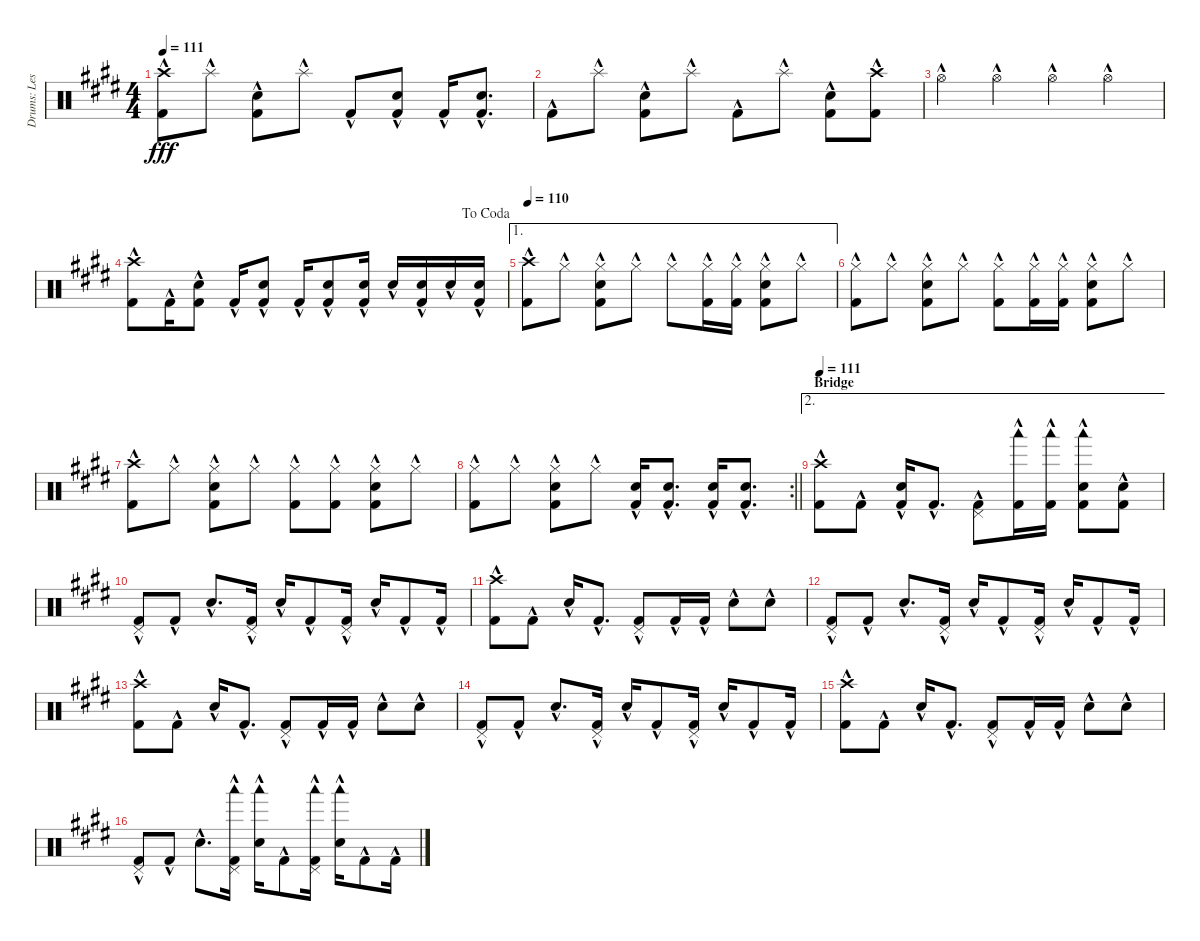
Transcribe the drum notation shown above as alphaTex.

\track ("Drums: Les" "Drums: Les") {instrument percussion}
\staff {score}
\articulation defaults
\ts (4 4)
\tempo 111
\clef neutral
\ks e
("Crash high (hit)"{hac} "Kick (hit) 2"{hac}).8{dy fff} "Splash (hit)"{hac}.8 ("Snare (hit) 2"{hac} "Kick (hit) 2"{hac}).8 "Splash (hit)"{hac}.8 "Kick (hit) 2"{hac}.8 ("Snare (hit) 2"{hac} "Kick (hit) 2"{hac}).8 "Kick (hit) 2"{hac}.16 ("Snare (hit) 2"{hac} "Kick (hit) 2"{hac}).8{d} |
"Kick (hit) 2"{hac}.8 "Splash (hit)"{hac}.8 ("Snare (hit) 2"{hac} "Kick (hit) 2"{hac}).8 "Splash (hit)"{hac}.8 "Kick (hit) 2"{hac}.8 "Splash (hit)"{hac}.8 ("Snare (hit) 2"{hac} "Kick (hit) 2"{hac}).8 ("Crash high (hit)"{hac} "Kick (hit) 2"{hac}).8 |
"Hi-Hat (open)"{hac}.4 "Hi-Hat (open)"{hac}.4 "Hi-Hat (open)"{hac}.4 "Hi-Hat (open)"{hac}.4 |
\jump dacoda
("Crash high (hit)"{hac} "Kick (hit) 2"{hac}).8 "Kick (hit) 2"{hac}.16 ("Snare (hit) 2"{hac} "Kick (hit) 2"{hac}).8 "Kick (hit) 2"{hac}.16 ("Snare (hit) 2"{hac} "Kick (hit) 2"{hac}).8 "Kick (hit) 2"{hac}.16 ("Snare (hit) 2"{hac} "Kick (hit) 2"{hac}).8 ("Snare (hit) 2"{hac} "Kick (hit) 2"{hac}).16 "Snare (hit) 2"{hac}.16 ("Snare (hit) 2"{hac} "Kick (hit) 2"{hac}).16 "Snare (hit) 2"{hac}.16 ("Snare (hit) 2"{hac} "Kick (hit) 2"{hac}).16 |
\ae 1
\tempo 110
("Crash high (hit)"{hac} "Kick (hit) 2"{hac}).8 "Hi-Hat (closed)"{hac}.8 ("Hi-Hat (closed)"{hac} "Snare (hit) 2"{hac} "Kick (hit) 2"{hac}).8 "Hi-Hat (closed)"{hac}.8 "Hi-Hat (closed)"{hac}.8 ("Hi-Hat (closed)"{hac} "Kick (hit) 2"{hac}).16 ("Hi-Hat (closed)"{hac} "Kick (hit) 2"{hac}).16 ("Hi-Hat (closed)"{hac} "Snare (hit) 2"{hac} "Kick (hit) 2"{hac}).8 "Hi-Hat (closed)"{hac}.8 |
("Hi-Hat (closed)"{hac} "Kick (hit) 2"{hac}).8 "Hi-Hat (closed)"{hac}.8 ("Hi-Hat (closed)"{hac} "Snare (hit) 2"{hac} "Kick (hit) 2"{hac}).8 "Hi-Hat (closed)"{hac}.8 ("Hi-Hat (closed)"{hac} "Kick (hit) 2"{hac}).8 ("Hi-Hat (closed)"{hac} "Kick (hit) 2"{hac}).16 ("Hi-Hat (closed)"{hac} "Kick (hit) 2"{hac}).16 ("Hi-Hat (closed)"{hac} "Snare (hit) 2"{hac} "Kick (hit) 2"{hac}).8 "Hi-Hat (closed)"{hac}.8 |
("Crash high (hit)"{hac} "Kick (hit) 2"{hac}).8 "Hi-Hat (closed)"{hac}.8 ("Hi-Hat (closed)"{hac} "Snare (hit) 2"{hac} "Kick (hit) 2"{hac}).8 "Hi-Hat (closed)"{hac}.8 ("Hi-Hat (closed)"{hac} "Kick (hit) 2"{hac}).8 ("Hi-Hat (closed)"{hac} "Kick (hit) 2"{hac}).8 ("Hi-Hat (closed)"{hac} "Snare (hit) 2"{hac} "Kick (hit) 2"{hac}).8 "Hi-Hat (closed)"{hac}.8 |
\rc 2
\barLineRight lightlight
("Hi-Hat (closed)"{hac} "Kick (hit) 2"{hac}).8 "Hi-Hat (closed)"{hac}.8 ("Hi-Hat (closed)"{hac} "Snare (hit) 2"{hac} "Kick (hit) 2"{hac}).8 "Hi-Hat (closed)"{hac}.8 ("Snare (hit) 2"{hac} "Kick (hit) 2"{hac}).16 ("Snare (hit) 2"{hac} "Kick (hit) 2"{hac}).8{d} ("Snare (hit) 2"{hac} "Kick (hit) 2"{hac}).16 ("Snare (hit) 2"{hac} "Kick (hit) 2"{hac}).8{d} |
\ae 2
\section ("" "Bridge")
\tempo 111
("Crash high (hit)"{hac} "Kick (hit) 2"{hac}).8 "Kick (hit) 2"{hac}.8 ("Snare (hit) 2"{hac} "Kick (hit) 2"{hac}).16 "Kick (hit) 2"{hac}.8{d} ("Pedal Hi-Hat (hit)"{hac} "Kick (hit) 2"{hac}).8 ("Kick (hit) 2"{hac} "Woodblock low (hit)"{hac}).16 ("Kick (hit) 2"{hac} "Woodblock low (hit)"{hac}).16 ("Snare (hit) 2"{hac} "Kick (hit) 2"{hac} "Woodblock low (hit)"{hac}).8 ("Snare (hit) 2"{hac} "Kick (hit) 2"{hac}).8 |
("Pedal Hi-Hat (hit)"{hac} "Kick (hit) 2"{hac}).8 "Kick (hit) 2"{hac}.8 "Electric Snare (hit)"{hac}.8{d} ("Pedal Hi-Hat (hit)"{hac} "Kick (hit) 2"{hac}).16 "Electric Snare (hit)"{hac}.16 "Kick (hit) 2"{hac}.8 ("Pedal Hi-Hat (hit)"{hac} "Kick (hit) 2"{hac}).16 "Electric Snare (hit)"{hac}.16 "Kick (hit) 2"{hac}.8 "Kick (hit) 2"{hac}.16 |
("Crash high (hit)"{hac} "Kick (hit) 2"{hac}).8 "Kick (hit) 2"{hac}.8 "Electric Snare (hit)"{hac}.16 "Kick (hit) 2"{hac}.8{d} ("Pedal Hi-Hat (hit)"{hac} "Kick (hit) 2"{hac}).8 "Kick (hit) 2"{hac}.16 "Kick (hit) 2"{hac}.16 "Electric Snare (hit)"{hac}.8 "Electric Snare (hit)"{hac}.8 |
("Pedal Hi-Hat (hit)"{hac} "Kick (hit) 2"{hac}).8 "Kick (hit) 2"{hac}.8 "Electric Snare (hit)"{hac}.8{d} ("Pedal Hi-Hat (hit)"{hac} "Kick (hit) 2"{hac}).16 "Electric Snare (hit)"{hac}.16 "Kick (hit) 2"{hac}.8 ("Pedal Hi-Hat (hit)"{hac} "Kick (hit) 2"{hac}).16 "Electric Snare (hit)"{hac}.16 "Kick (hit) 2"{hac}.8 "Kick (hit) 2"{hac}.16 |
("Crash high (hit)"{hac} "Kick (hit) 2"{hac}).8 "Kick (hit) 2"{hac}.8 "Electric Snare (hit)"{hac}.16 "Kick (hit) 2"{hac}.8{d} ("Pedal Hi-Hat (hit)"{hac} "Kick (hit) 2"{hac}).8 "Kick (hit) 2"{hac}.16 "Kick (hit) 2"{hac}.16 "Electric Snare (hit)"{hac}.8 "Electric Snare (hit)"{hac}.8 |
("Pedal Hi-Hat (hit)"{hac} "Kick (hit) 2"{hac}).8 "Kick (hit) 2"{hac}.8 "Electric Snare (hit)"{hac}.8{d} ("Pedal Hi-Hat (hit)"{hac} "Kick (hit) 2"{hac}).16 "Electric Snare (hit)"{hac}.16 "Kick (hit) 2"{hac}.8 ("Pedal Hi-Hat (hit)"{hac} "Kick (hit) 2"{hac}).16 "Electric Snare (hit)"{hac}.16 "Kick (hit) 2"{hac}.8 "Kick (hit) 2"{hac}.16 |
("Crash high (hit)"{hac} "Kick (hit) 2"{hac}).8 "Kick (hit) 2"{hac}.8 "Electric Snare (hit)"{hac}.16 "Kick (hit) 2"{hac}.8{d} ("Pedal Hi-Hat (hit)"{hac} "Kick (hit) 2"{hac}).8 "Kick (hit) 2"{hac}.16 "Kick (hit) 2"{hac}.16 "Electric Snare (hit)"{hac}.8 "Electric Snare (hit)"{hac}.8 |
("Pedal Hi-Hat (hit)"{hac} "Kick (hit) 2"{hac}).8 "Kick (hit) 2"{hac}.8 "Electric Snare (hit)"{hac}.8{d} ("Woodblock low (hit)"{hac} "Pedal Hi-Hat (hit)"{hac} "Kick (hit) 2"{hac}).16 ("Woodblock low (hit)"{hac} "Electric Snare (hit)"{hac}).16 "Kick (hit) 2"{hac}.8 ("Woodblock low (hit)"{hac} "Pedal Hi-Hat (hit)"{hac} "Kick (hit) 2"{hac}).16 ("Woodblock low (hit)"{hac} "Electric Snare (hit)"{hac}).16 "Kick (hit) 2"{hac}.8 "Kick (hit) 2"{hac}.16
